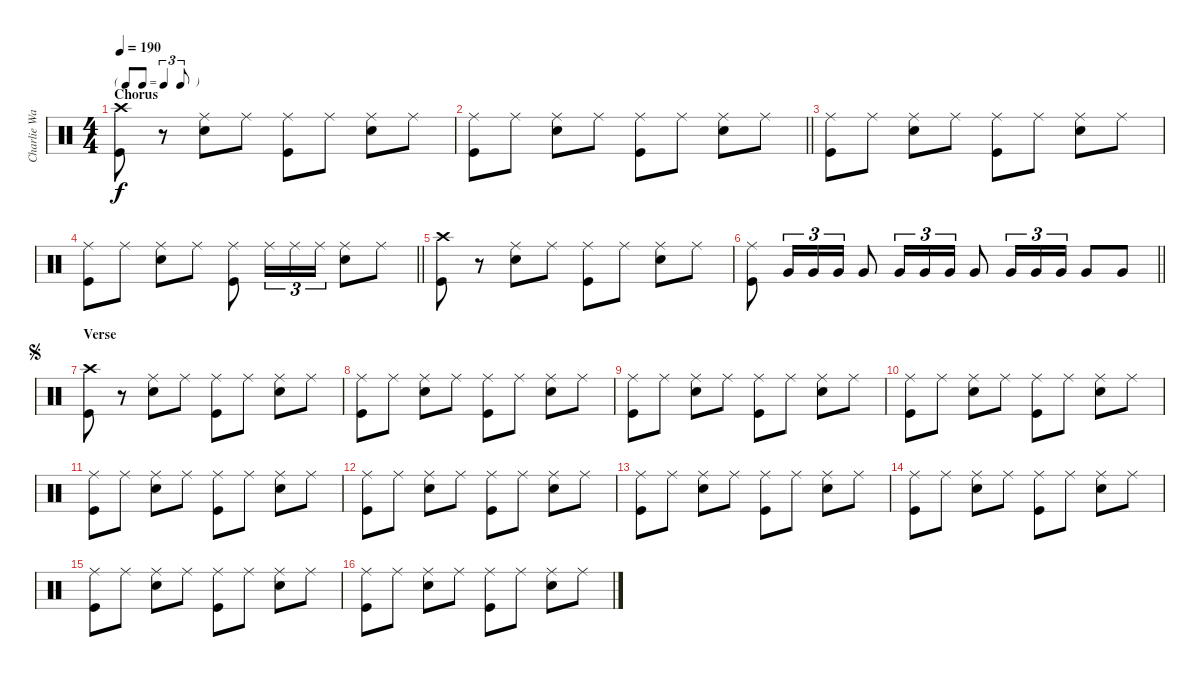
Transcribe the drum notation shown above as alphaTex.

\track ("Charlie Watts" "Charlie Wa") {instrument percussion}
\staff {score}
\articulation defaults
\ts (4 4)
\tf triplet8th
\section ("" "Chorus")
\tempo 190
\clef neutral
\ks c
("Crash high (hit)" "Kick (hit)").8{dy f} r.8 ("Ride (middle)" "Snare (hit) 2").8 "Ride (middle)".8 ("Ride (middle)" "Kick (hit)").8 "Ride (middle)".8 ("Ride (middle)" "Snare (hit) 2").8 "Ride (middle)".8 |
\barLineRight lightlight
("Ride (middle)" "Kick (hit)").8 "Ride (middle)".8 ("Ride (middle)" "Snare (hit) 2").8 "Ride (middle)".8 ("Ride (middle)" "Kick (hit)").8 "Ride (middle)".8 ("Ride (middle)" "Snare (hit) 2").8 "Ride (middle)".8 |
("Ride (middle)" "Kick (hit)").8 "Ride (middle)".8 ("Ride (middle)" "Snare (hit) 2").8 "Ride (middle)".8 ("Ride (middle)" "Kick (hit)").8 "Ride (middle)".8 ("Ride (middle)" "Snare (hit) 2").8 "Ride (middle)".8 |
\barLineRight lightlight
("Ride (middle)" "Kick (hit)").8 "Ride (middle)".8 ("Ride (middle)" "Snare (hit) 2").8 "Ride (middle)".8 ("Ride (middle)" "Kick (hit)").8 "Ride (middle)".16{tu (3 2)} "Ride (middle)".16{tu (3 2)} "Ride (middle)".16{tu (3 2)} ("Ride (middle)" "Snare (hit) 2").8 "Ride (middle)".8 |
("Crash high (hit)" "Kick (hit)").8 r.8 ("Ride (middle)" "Snare (hit) 2").8 "Ride (middle)".8 ("Ride (middle)" "Kick (hit)").8 "Ride (middle)".8 ("Ride (middle)" "Snare (hit) 2").8 "Ride (middle)".8 |
\barLineRight lightlight
("Ride (middle)" "Kick (hit)").8 "Very Low Tom (hit)".16{tu (3 2)} "Very Low Tom (hit)".16{tu (3 2)} "Very Low Tom (hit)".16{tu (3 2)} "Very Low Tom (hit)".8 "Very Low Tom (hit)".16{tu (3 2)} "Very Low Tom (hit)".16{tu (3 2)} "Very Low Tom (hit)".16{tu (3 2)} "Very Low Tom (hit)".8 "Very Low Tom (hit)".16{tu (3 2)} "Very Low Tom (hit)".16{tu (3 2)} "Very Low Tom (hit)".16{tu (3 2)} "Very Low Tom (hit)".8 "Very Low Tom (hit)".8 |
\section ("" "Verse")
\jump segno
("Crash high (hit)" "Kick (hit)").8 r.8 ("Ride (middle)" "Snare (hit) 2").8 "Ride (middle)".8 ("Ride (middle)" "Kick (hit)").8 "Ride (middle)".8 ("Ride (middle)" "Snare (hit) 2").8 "Ride (middle)".8 |
("Ride (middle)" "Kick (hit)").8 "Ride (middle)".8 ("Ride (middle)" "Snare (hit) 2").8 "Ride (middle)".8 ("Ride (middle)" "Kick (hit)").8 "Ride (middle)".8 ("Ride (middle)" "Snare (hit) 2").8 "Ride (middle)".8 |
("Ride (middle)" "Kick (hit)").8 "Ride (middle)".8 ("Ride (middle)" "Snare (hit) 2").8 "Ride (middle)".8 ("Ride (middle)" "Kick (hit)").8 "Ride (middle)".8 ("Ride (middle)" "Snare (hit) 2").8 "Ride (middle)".8 |
("Ride (middle)" "Kick (hit)").8 "Ride (middle)".8 ("Ride (middle)" "Snare (hit) 2").8 "Ride (middle)".8 ("Ride (middle)" "Kick (hit)").8 "Ride (middle)".8 ("Ride (middle)" "Snare (hit) 2").8 "Ride (middle)".8 |
("Ride (middle)" "Kick (hit)").8 "Ride (middle)".8 ("Ride (middle)" "Snare (hit) 2").8 "Ride (middle)".8 ("Ride (middle)" "Kick (hit)").8 "Ride (middle)".8 ("Ride (middle)" "Snare (hit) 2").8 "Ride (middle)".8 |
("Ride (middle)" "Kick (hit)").8 "Ride (middle)".8 ("Ride (middle)" "Snare (hit) 2").8 "Ride (middle)".8 ("Ride (middle)" "Kick (hit)").8 "Ride (middle)".8 ("Ride (middle)" "Snare (hit) 2").8 "Ride (middle)".8 |
("Ride (middle)" "Kick (hit)").8 "Ride (middle)".8 ("Ride (middle)" "Snare (hit) 2").8 "Ride (middle)".8 ("Ride (middle)" "Kick (hit)").8 "Ride (middle)".8 ("Ride (middle)" "Snare (hit) 2").8 "Ride (middle)".8 |
("Ride (middle)" "Kick (hit)").8 "Ride (middle)".8 ("Ride (middle)" "Snare (hit) 2").8 "Ride (middle)".8 ("Ride (middle)" "Kick (hit)").8 "Ride (middle)".8 ("Ride (middle)" "Snare (hit) 2").8 "Ride (middle)".8 |
("Ride (middle)" "Kick (hit)").8 "Ride (middle)".8 ("Ride (middle)" "Snare (hit) 2").8 "Ride (middle)".8 ("Ride (middle)" "Kick (hit)").8 "Ride (middle)".8 ("Ride (middle)" "Snare (hit) 2").8 "Ride (middle)".8 |
("Ride (middle)" "Kick (hit)").8 "Ride (middle)".8 ("Ride (middle)" "Snare (hit) 2").8 "Ride (middle)".8 ("Ride (middle)" "Kick (hit)").8 "Ride (middle)".8 ("Ride (middle)" "Snare (hit) 2").8 "Ride (middle)".8
